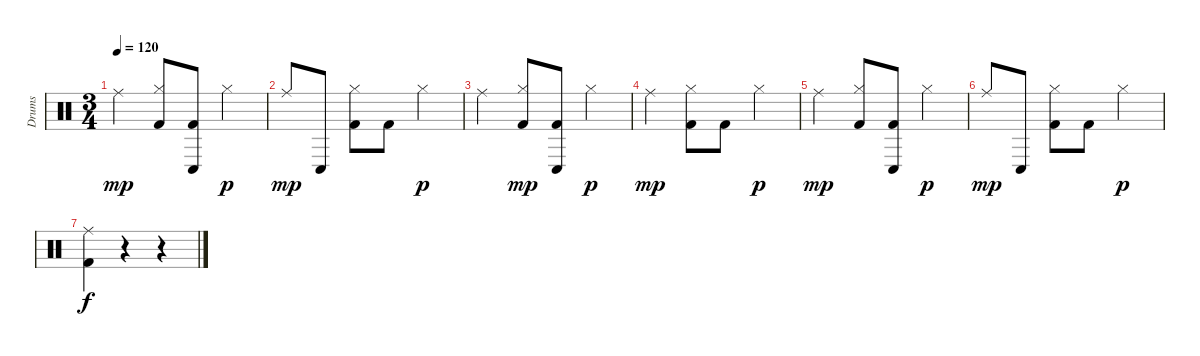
\track ("Drums" "Drums") {instrument percussion}
\staff {score}
\articulation defaults
\ts (3 4)
\tempo 120
\clef neutral
\ks c "Ride (middle)".4{dy mp}
("Hi-Hat (closed)" "Kick (hit) 2").8 ("Kick (hit) 2" "Conga low (hit)").8 "Hi-Hat (closed)".4{dy p} |
"Ride (middle)".8{dy mp} "Conga low (hit)".8 ("Hi-Hat (closed)" "Kick (hit) 2").8 "Kick (hit) 2".8 "Hi-Hat (closed)".4{dy p} |
"Ride (middle)".4 ("Hi-Hat (closed)" "Kick (hit) 2").8{dy mp} ("Kick (hit) 2" "Conga low (hit)").8 "Hi-Hat (closed)".4{dy p} |
"Ride (middle)".4{dy mp} ("Hi-Hat (closed)" "Kick (hit) 2").8 "Kick (hit) 2".8 "Hi-Hat (closed)".4{dy p} |
"Ride (middle)".4{dy mp} ("Hi-Hat (closed)" "Kick (hit) 2").8 ("Kick (hit) 2" "Conga low (hit)").8 "Hi-Hat (closed)".4{dy p} |
"Ride (middle)".8{dy mp} "Conga low (hit)".8 ("Hi-Hat (closed)" "Kick (hit) 2").8 "Kick (hit) 2".8 "Hi-Hat (closed)".4{dy p} |
("Ride (middle)" "Kick (hit) 2").4{dy f} r.4 r.4
